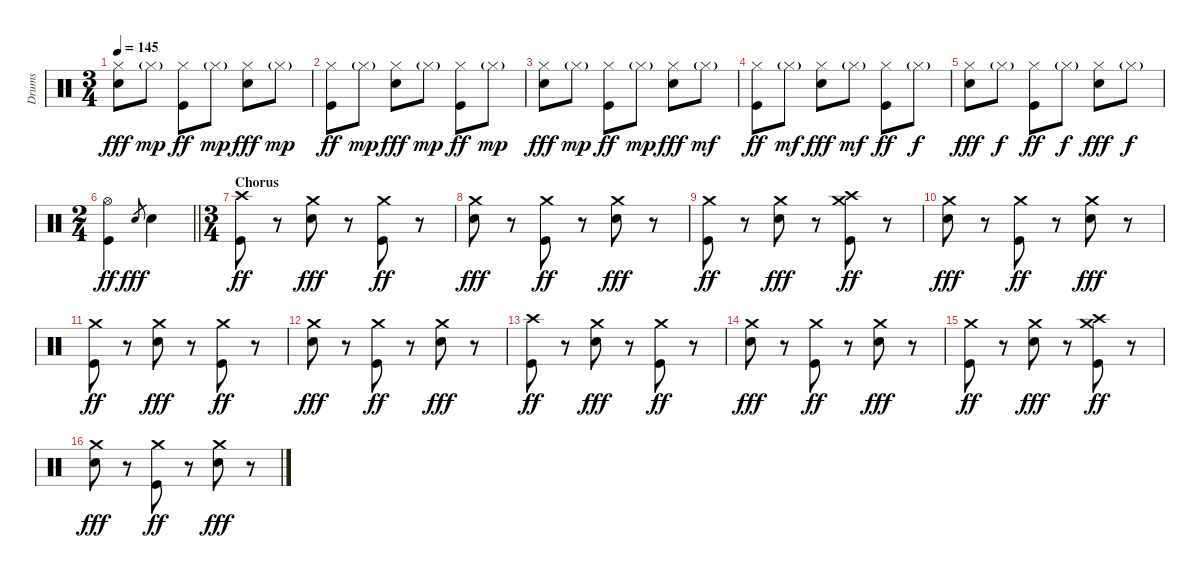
\track ("Drums" "Drums") {instrument percussion}
\staff {score}
\articulation defaults
\ts (3 4)
\tempo 145
\clef neutral
\ks c
("Hi-Hat (closed)" "Electric Snare (hit)").8{dy fff} "Hi-Hat (closed)"{g}.8{dy mp} ("Hi-Hat (closed)" "Kick (hit)").8{dy ff} "Hi-Hat (closed)"{g}.8{dy mp} ("Hi-Hat (closed)" "Electric Snare (hit)").8{dy fff} "Hi-Hat (closed)"{g}.8{dy mp} |
("Hi-Hat (closed)" "Kick (hit)").8{dy ff} "Hi-Hat (closed)"{g}.8{dy mp} ("Hi-Hat (closed)" "Electric Snare (hit)").8{dy fff} "Hi-Hat (closed)"{g}.8{dy mp} ("Hi-Hat (closed)" "Kick (hit)").8{dy ff} "Hi-Hat (closed)"{g}.8{dy mp} |
("Hi-Hat (closed)" "Electric Snare (hit)").8{dy fff} "Hi-Hat (closed)"{g}.8{dy mp} ("Hi-Hat (closed)" "Kick (hit)").8{dy ff} "Hi-Hat (closed)"{g}.8{dy mp} ("Hi-Hat (closed)" "Electric Snare (hit)").8{dy fff} "Hi-Hat (closed)"{g}.8{dy mf} |
("Hi-Hat (closed)" "Kick (hit)").8{dy ff} "Hi-Hat (closed)"{g}.8{dy mf} ("Hi-Hat (closed)" "Electric Snare (hit)").8{dy fff} "Hi-Hat (closed)"{g}.8{dy mf} ("Hi-Hat (closed)" "Kick (hit)").8{dy ff} "Hi-Hat (closed)"{g}.8{dy f} |
("Hi-Hat (closed)" "Electric Snare (hit)").8{dy fff} "Hi-Hat (closed)"{g}.8{dy f} ("Hi-Hat (closed)" "Kick (hit)").8{dy ff} "Hi-Hat (closed)"{g}.8{dy f} ("Hi-Hat (closed)" "Electric Snare (hit)").8{dy fff} "Hi-Hat (closed)"{g}.8{dy f} |
\ts (2 4)
\barLineRight lightlight
("Hi-Hat (open)" "Kick (hit)").4{dy ff} "Electric Snare (hit)".8{gr dy fff} "Electric Snare (hit)".4 |
\ts (3 4)
\section ("" "Chorus")
("Crash high (hit)" "Kick (hit)").8{dy ff} r.8 ("Crash medium (hit)" "Electric Snare (hit)").8{dy fff} r.8 ("Crash medium (hit)" "Kick (hit)").8{dy ff} r.8 |
("Crash medium (hit)" "Electric Snare (hit)").8{dy fff} r.8 ("Crash medium (hit)" "Kick (hit)").8{dy ff} r.8 ("Crash medium (hit)" "Electric Snare (hit)").8{dy fff} r.8 |
("Crash medium (hit)" "Kick (hit)").8{dy ff} r.8 ("Crash medium (hit)" "Electric Snare (hit)").8{dy fff} r.8 ("Crash high (hit)" "Crash medium (hit)" "Kick (hit)").8{dy ff} r.8 |
("Crash medium (hit)" "Electric Snare (hit)").8{dy fff} r.8 ("Crash medium (hit)" "Kick (hit)").8{dy ff} r.8 ("Crash medium (hit)" "Electric Snare (hit)").8{dy fff} r.8 |
("Crash medium (hit)" "Kick (hit)").8{dy ff} r.8 ("Crash medium (hit)" "Electric Snare (hit)").8{dy fff} r.8 ("Crash medium (hit)" "Kick (hit)").8{dy ff} r.8 |
("Crash medium (hit)" "Electric Snare (hit)").8{dy fff} r.8 ("Crash medium (hit)" "Kick (hit)").8{dy ff} r.8 ("Crash medium (hit)" "Electric Snare (hit)").8{dy fff} r.8 |
("Crash high (hit)" "Kick (hit)").8{dy ff} r.8 ("Crash medium (hit)" "Electric Snare (hit)").8{dy fff} r.8 ("Crash medium (hit)" "Kick (hit)").8{dy ff} r.8 |
("Crash medium (hit)" "Electric Snare (hit)").8{dy fff} r.8 ("Crash medium (hit)" "Kick (hit)").8{dy ff} r.8 ("Crash medium (hit)" "Electric Snare (hit)").8{dy fff} r.8 |
("Crash medium (hit)" "Kick (hit)").8{dy ff} r.8 ("Crash medium (hit)" "Electric Snare (hit)").8{dy fff} r.8 ("Crash high (hit)" "Crash medium (hit)" "Kick (hit)").8{dy ff} r.8 |
("Crash medium (hit)" "Electric Snare (hit)").8{dy fff} r.8 ("Crash medium (hit)" "Kick (hit)").8{dy ff} r.8 ("Crash medium (hit)" "Electric Snare (hit)").8{dy fff} r.8
